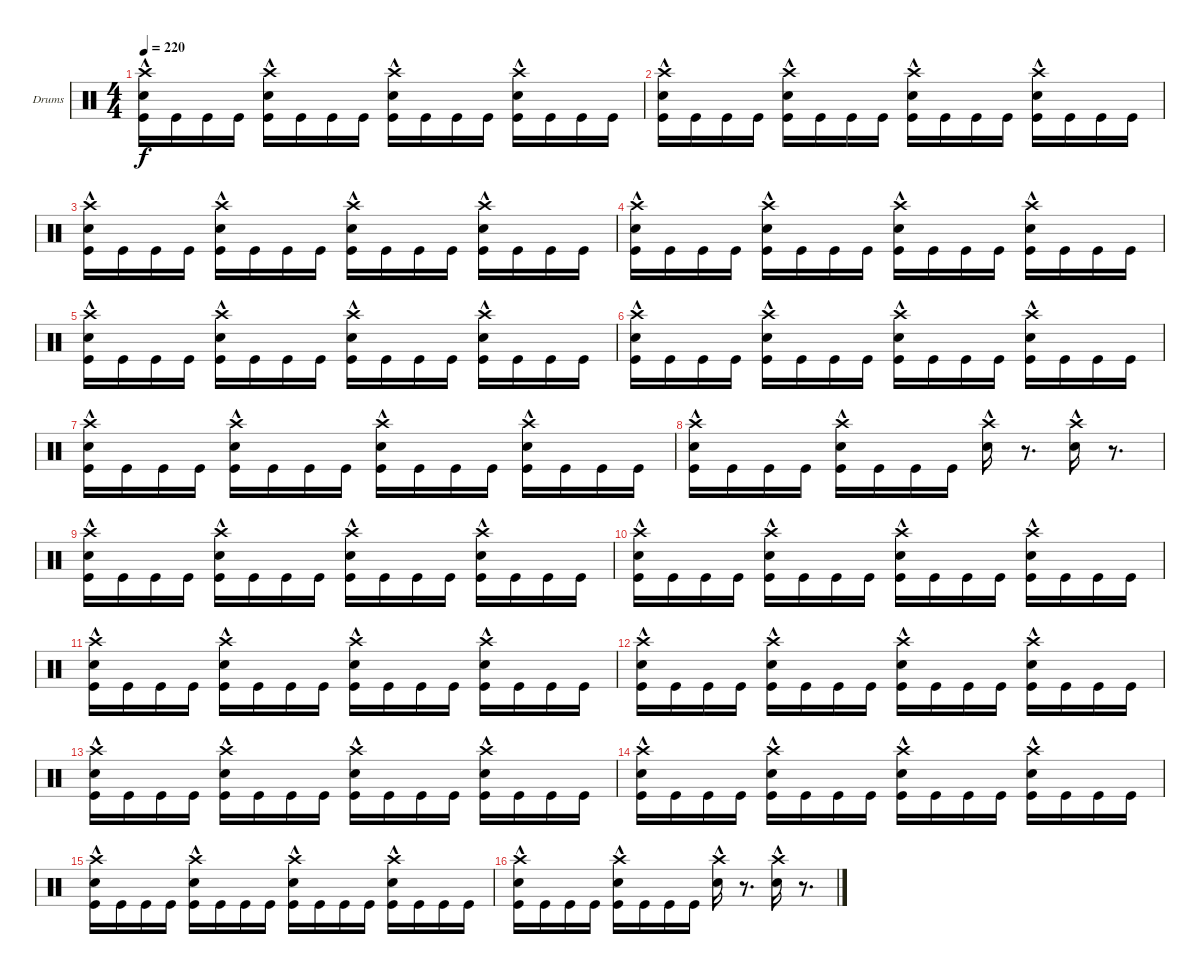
\defaultSystemsLayout 4
\bracketExtendMode groupsimilarinstruments
\firstSystemTrackNameOrientation horizontal
\otherSystemsTrackNameOrientation horizontal
\track ("Drumkit" "Drums") {instrument percussion}
\staff {score}
\articulation defaults
\ts (4 4)
\tempo 220
\clef neutral
\ks c
("Kick (hit)" "Snare (hit) 2"{hac} "Crash high (hit)").16{dy f} "Kick (hit)".16 "Kick (hit)".16 "Kick (hit)".16 ("Kick (hit)" "Snare (hit) 2"{hac} "Crash high (hit)").16 "Kick (hit)".16 "Kick (hit)".16 "Kick (hit)".16 ("Kick (hit)" "Snare (hit) 2"{hac} "Crash high (hit)").16 "Kick (hit)".16 "Kick (hit)".16 "Kick (hit)".16 ("Kick (hit)" "Snare (hit) 2"{hac} "Crash high (hit)").16 "Kick (hit)".16 "Kick (hit)".16 "Kick (hit)".16 |
("Kick (hit)" "Snare (hit) 2"{hac} "Crash high (hit)").16 "Kick (hit)".16 "Kick (hit)".16 "Kick (hit)".16 ("Kick (hit)" "Snare (hit) 2"{hac} "Crash high (hit)").16 "Kick (hit)".16 "Kick (hit)".16 "Kick (hit)".16 ("Kick (hit)" "Snare (hit) 2"{hac} "Crash high (hit)").16 "Kick (hit)".16 "Kick (hit)".16 "Kick (hit)".16 ("Kick (hit)" "Snare (hit) 2"{hac} "Crash high (hit)").16 "Kick (hit)".16 "Kick (hit)".16 "Kick (hit)".16 |
("Kick (hit)" "Snare (hit) 2"{hac} "Crash high (hit)").16 "Kick (hit)".16 "Kick (hit)".16 "Kick (hit)".16 ("Kick (hit)" "Snare (hit) 2"{hac} "Crash high (hit)").16 "Kick (hit)".16 "Kick (hit)".16 "Kick (hit)".16 ("Kick (hit)" "Snare (hit) 2"{hac} "Crash high (hit)").16 "Kick (hit)".16 "Kick (hit)".16 "Kick (hit)".16 ("Kick (hit)" "Snare (hit) 2"{hac} "Crash high (hit)").16 "Kick (hit)".16 "Kick (hit)".16 "Kick (hit)".16 |
("Kick (hit)" "Snare (hit) 2"{hac} "Crash high (hit)").16 "Kick (hit)".16 "Kick (hit)".16 "Kick (hit)".16 ("Kick (hit)" "Snare (hit) 2"{hac} "Crash high (hit)").16 "Kick (hit)".16 "Kick (hit)".16 "Kick (hit)".16 ("Kick (hit)" "Snare (hit) 2"{hac} "Crash high (hit)").16 "Kick (hit)".16 "Kick (hit)".16 "Kick (hit)".16 ("Kick (hit)" "Snare (hit) 2"{hac} "Crash high (hit)").16 "Kick (hit)".16 "Kick (hit)".16 "Kick (hit)".16 |
("Kick (hit)" "Snare (hit) 2"{hac} "Crash high (hit)").16 "Kick (hit)".16 "Kick (hit)".16 "Kick (hit)".16 ("Kick (hit)" "Snare (hit) 2"{hac} "Crash high (hit)").16 "Kick (hit)".16 "Kick (hit)".16 "Kick (hit)".16 ("Kick (hit)" "Snare (hit) 2"{hac} "Crash high (hit)").16 "Kick (hit)".16 "Kick (hit)".16 "Kick (hit)".16 ("Kick (hit)" "Snare (hit) 2"{hac} "Crash high (hit)").16 "Kick (hit)".16 "Kick (hit)".16 "Kick (hit)".16 |
("Kick (hit)" "Snare (hit) 2"{hac} "Crash high (hit)").16 "Kick (hit)".16 "Kick (hit)".16 "Kick (hit)".16 ("Kick (hit)" "Snare (hit) 2"{hac} "Crash high (hit)").16 "Kick (hit)".16 "Kick (hit)".16 "Kick (hit)".16 ("Kick (hit)" "Snare (hit) 2"{hac} "Crash high (hit)").16 "Kick (hit)".16 "Kick (hit)".16 "Kick (hit)".16 ("Kick (hit)" "Snare (hit) 2"{hac} "Crash high (hit)").16 "Kick (hit)".16 "Kick (hit)".16 "Kick (hit)".16 |
("Kick (hit)" "Snare (hit) 2"{hac} "Crash high (hit)").16 "Kick (hit)".16 "Kick (hit)".16 "Kick (hit)".16 ("Kick (hit)" "Snare (hit) 2"{hac} "Crash high (hit)").16 "Kick (hit)".16 "Kick (hit)".16 "Kick (hit)".16 ("Kick (hit)" "Snare (hit) 2"{hac} "Crash high (hit)").16 "Kick (hit)".16 "Kick (hit)".16 "Kick (hit)".16 ("Kick (hit)" "Snare (hit) 2"{hac} "Crash high (hit)").16 "Kick (hit)".16 "Kick (hit)".16 "Kick (hit)".16 |
("Kick (hit)" "Snare (hit) 2"{hac} "Crash high (hit)").16 "Kick (hit)".16 "Kick (hit)".16 "Kick (hit)".16 ("Kick (hit)" "Snare (hit) 2"{hac} "Crash high (hit)").16 "Kick (hit)".16 "Kick (hit)".16 "Kick (hit)".16 ("Snare (hit) 2"{hac} "Crash high (hit)").16 r.8{d} ("Snare (hit) 2"{hac} "Crash high (hit)").16 r.8{d} |
("Kick (hit)" "Snare (hit) 2"{hac} "Crash high (hit)").16 "Kick (hit)".16 "Kick (hit)".16 "Kick (hit)".16 ("Kick (hit)" "Snare (hit) 2"{hac} "Crash high (hit)").16 "Kick (hit)".16 "Kick (hit)".16 "Kick (hit)".16 ("Kick (hit)" "Snare (hit) 2"{hac} "Crash high (hit)").16 "Kick (hit)".16 "Kick (hit)".16 "Kick (hit)".16 ("Kick (hit)" "Snare (hit) 2"{hac} "Crash high (hit)").16 "Kick (hit)".16 "Kick (hit)".16 "Kick (hit)".16 |
("Kick (hit)" "Snare (hit) 2"{hac} "Crash high (hit)").16 "Kick (hit)".16 "Kick (hit)".16 "Kick (hit)".16 ("Kick (hit)" "Snare (hit) 2"{hac} "Crash high (hit)").16 "Kick (hit)".16 "Kick (hit)".16 "Kick (hit)".16 ("Kick (hit)" "Snare (hit) 2"{hac} "Crash high (hit)").16 "Kick (hit)".16 "Kick (hit)".16 "Kick (hit)".16 ("Kick (hit)" "Snare (hit) 2"{hac} "Crash high (hit)").16 "Kick (hit)".16 "Kick (hit)".16 "Kick (hit)".16 |
("Kick (hit)" "Snare (hit) 2"{hac} "Crash high (hit)").16 "Kick (hit)".16 "Kick (hit)".16 "Kick (hit)".16 ("Kick (hit)" "Snare (hit) 2"{hac} "Crash high (hit)").16 "Kick (hit)".16 "Kick (hit)".16 "Kick (hit)".16 ("Kick (hit)" "Snare (hit) 2"{hac} "Crash high (hit)").16 "Kick (hit)".16 "Kick (hit)".16 "Kick (hit)".16 ("Kick (hit)" "Snare (hit) 2"{hac} "Crash high (hit)").16 "Kick (hit)".16 "Kick (hit)".16 "Kick (hit)".16 |
("Kick (hit)" "Snare (hit) 2"{hac} "Crash high (hit)").16 "Kick (hit)".16 "Kick (hit)".16 "Kick (hit)".16 ("Kick (hit)" "Snare (hit) 2"{hac} "Crash high (hit)").16 "Kick (hit)".16 "Kick (hit)".16 "Kick (hit)".16 ("Kick (hit)" "Snare (hit) 2"{hac} "Crash high (hit)").16 "Kick (hit)".16 "Kick (hit)".16 "Kick (hit)".16 ("Kick (hit)" "Snare (hit) 2"{hac} "Crash high (hit)").16 "Kick (hit)".16 "Kick (hit)".16 "Kick (hit)".16 |
("Kick (hit)" "Snare (hit) 2"{hac} "Crash high (hit)").16 "Kick (hit)".16 "Kick (hit)".16 "Kick (hit)".16 ("Kick (hit)" "Snare (hit) 2"{hac} "Crash high (hit)").16 "Kick (hit)".16 "Kick (hit)".16 "Kick (hit)".16 ("Kick (hit)" "Snare (hit) 2"{hac} "Crash high (hit)").16 "Kick (hit)".16 "Kick (hit)".16 "Kick (hit)".16 ("Kick (hit)" "Snare (hit) 2"{hac} "Crash high (hit)").16 "Kick (hit)".16 "Kick (hit)".16 "Kick (hit)".16 |
("Kick (hit)" "Snare (hit) 2"{hac} "Crash high (hit)").16 "Kick (hit)".16 "Kick (hit)".16 "Kick (hit)".16 ("Kick (hit)" "Snare (hit) 2"{hac} "Crash high (hit)").16 "Kick (hit)".16 "Kick (hit)".16 "Kick (hit)".16 ("Kick (hit)" "Snare (hit) 2"{hac} "Crash high (hit)").16 "Kick (hit)".16 "Kick (hit)".16 "Kick (hit)".16 ("Kick (hit)" "Snare (hit) 2"{hac} "Crash high (hit)").16 "Kick (hit)".16 "Kick (hit)".16 "Kick (hit)".16 |
("Kick (hit)" "Snare (hit) 2"{hac} "Crash high (hit)").16 "Kick (hit)".16 "Kick (hit)".16 "Kick (hit)".16 ("Kick (hit)" "Snare (hit) 2"{hac} "Crash high (hit)").16 "Kick (hit)".16 "Kick (hit)".16 "Kick (hit)".16 ("Kick (hit)" "Snare (hit) 2"{hac} "Crash high (hit)").16 "Kick (hit)".16 "Kick (hit)".16 "Kick (hit)".16 ("Kick (hit)" "Snare (hit) 2"{hac} "Crash high (hit)").16 "Kick (hit)".16 "Kick (hit)".16 "Kick (hit)".16 |
("Kick (hit)" "Snare (hit) 2"{hac} "Crash high (hit)").16 "Kick (hit)".16 "Kick (hit)".16 "Kick (hit)".16 ("Kick (hit)" "Snare (hit) 2"{hac} "Crash high (hit)").16 "Kick (hit)".16 "Kick (hit)".16 "Kick (hit)".16 ("Snare (hit) 2"{hac} "Crash high (hit)").16 r.8{d} ("Snare (hit) 2"{hac} "Crash high (hit)").16 r.8{d}
